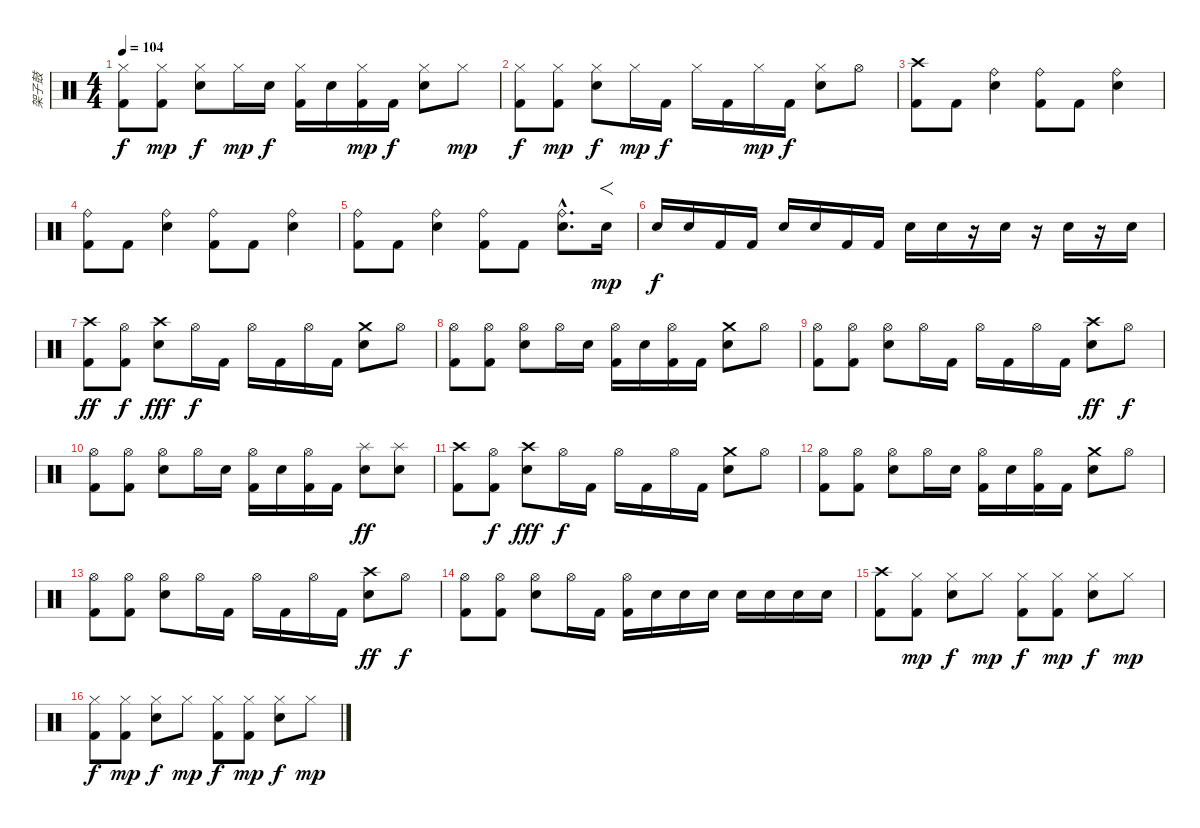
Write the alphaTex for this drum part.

\track ("架子鼓" "架子鼓") {instrument percussion}
\staff {score}
\articulation defaults
\ts (4 4)
\tempo 104
\clef neutral
\ks c
("Hi-Hat (closed)" "Kick (hit) 2").8{dy f} ("Hi-Hat (closed)" "Kick (hit) 2").8{dy mp} ("Hi-Hat (closed)" "Electric Snare (hit)").8{dy f} "Hi-Hat (closed)".16{dy mp} "Electric Snare (hit)".16{dy f} ("Hi-Hat (closed)" "Kick (hit) 2").16 "Electric Snare (hit)".16 ("Hi-Hat (closed)" "Kick (hit) 2").16{dy mp} "Kick (hit) 2".16{dy f} ("Hi-Hat (closed)" "Electric Snare (hit)").8 "Hi-Hat (closed)".8{dy mp} |
("Hi-Hat (closed)" "Kick (hit) 2").8{dy f} ("Hi-Hat (closed)" "Kick (hit) 2").8{dy mp} ("Hi-Hat (closed)" "Electric Snare (hit)").8{dy f} "Hi-Hat (closed)".16{dy mp} "Kick (hit) 2".16{dy f} "Hi-Hat (closed)".16 "Kick (hit) 2".16 "Hi-Hat (closed)".16{dy mp} "Kick (hit) 2".16{dy f} ("Hi-Hat (closed)" "Electric Snare (hit)").8 "Hi-Hat (open)".8 |
("Crash high (hit)" "Kick (hit) 2").8 "Kick (hit) 2".8 ("Ride (bell)" "Electric Snare (hit)").4 ("Ride (bell)" "Kick (hit) 2").8 "Kick (hit) 2".8 ("Ride (bell)" "Electric Snare (hit)").4 |
("Ride (bell)" "Kick (hit) 2").8 "Kick (hit) 2".8 ("Ride (bell)" "Electric Snare (hit)").4 ("Ride (bell)" "Kick (hit) 2").8 "Kick (hit) 2".8 ("Ride (bell)" "Electric Snare (hit)").4 |
("Ride (bell)" "Kick (hit) 2").8 "Kick (hit) 2".8 ("Ride (bell)" "Electric Snare (hit)").4 ("Ride (bell)" "Kick (hit) 2").8 "Kick (hit) 2".8 ("Ride (bell)"{hac} "Electric Snare (hit)"{hac}).8{d} "Electric Snare (hit)"{tr (40 32)}.16{f dy mp} |
"Electric Snare (hit)".16{dy f} "Electric Snare (hit)".16 "Kick (hit) 2".16 "Kick (hit) 2".16 "Electric Snare (hit)".16 "Electric Snare (hit)".16 "Kick (hit) 2".16 "Kick (hit) 2".16 "Electric Snare (hit)".16 "Electric Snare (hit)".16 r.16 "Electric Snare (hit)".16 r.16 "Electric Snare (hit)".16 r.16 "Electric Snare (hit)".16 |
("Crash high (hit)" "Kick (hit) 2").8{dy ff} ("Hi-Hat (open)" "Kick (hit) 2").8{dy f} ("Crash high (hit)" "Electric Snare (hit)").8{dy fff} "Hi-Hat (open)".16{dy f} "Kick (hit) 2".16 "Hi-Hat (open)".16 "Kick (hit) 2".16 "Hi-Hat (open)".16 "Kick (hit) 2".16 ("Crash medium (hit)" "Electric Snare (hit)").8 "Hi-Hat (open)".8 |
("Hi-Hat (open)" "Kick (hit) 2").8 ("Hi-Hat (open)" "Kick (hit) 2").8 ("Hi-Hat (open)" "Electric Snare (hit)").8 "Hi-Hat (open)".16 "Electric Snare (hit)".16 ("Hi-Hat (open)" "Kick (hit) 2").16 "Electric Snare (hit)".16 ("Hi-Hat (open)" "Kick (hit) 2").16 "Kick (hit) 2".16 ("Crash medium (hit)" "Electric Snare (hit)").8 "Hi-Hat (open)".8 |
("Hi-Hat (open)" "Kick (hit) 2").8 ("Hi-Hat (open)" "Kick (hit) 2").8 ("Hi-Hat (open)" "Electric Snare (hit)").8 "Hi-Hat (open)".16 "Kick (hit) 2".16 "Hi-Hat (open)".16 "Kick (hit) 2".16 "Hi-Hat (open)".16 "Kick (hit) 2".16 ("Crash high (hit)" "Electric Snare (hit)").8{dy ff} "Hi-Hat (open)".8{dy f} |
("Hi-Hat (open)" "Kick (hit) 2").8 ("Hi-Hat (open)" "Kick (hit) 2").8 ("Hi-Hat (open)" "Electric Snare (hit)").8 "Hi-Hat (open)".16 "Electric Snare (hit)".16 ("Hi-Hat (open)" "Kick (hit) 2").16 "Electric Snare (hit)".16 ("Hi-Hat (open)" "Kick (hit) 2").16 "Kick (hit) 2".16 ("Splash (hit)" "Electric Snare (hit)").8{dy ff} ("Splash (hit)" "Electric Snare (hit)").8 |
("Crash high (hit)" "Kick (hit) 2").8 ("Hi-Hat (open)" "Kick (hit) 2").8{dy f} ("Crash high (hit)" "Electric Snare (hit)").8{dy fff} "Hi-Hat (open)".16{dy f} "Kick (hit) 2".16 "Hi-Hat (open)".16 "Kick (hit) 2".16 "Hi-Hat (open)".16 "Kick (hit) 2".16 ("Crash medium (hit)" "Electric Snare (hit)").8 "Hi-Hat (open)".8 |
("Hi-Hat (open)" "Kick (hit) 2").8 ("Hi-Hat (open)" "Kick (hit) 2").8 ("Hi-Hat (open)" "Electric Snare (hit)").8 "Hi-Hat (open)".16 "Electric Snare (hit)".16 ("Hi-Hat (open)" "Kick (hit) 2").16 "Electric Snare (hit)".16 ("Hi-Hat (open)" "Kick (hit) 2").16 "Kick (hit) 2".16 ("Crash medium (hit)" "Electric Snare (hit)").8 "Hi-Hat (open)".8 |
("Hi-Hat (open)" "Kick (hit) 2").8 ("Hi-Hat (open)" "Kick (hit) 2").8 ("Hi-Hat (open)" "Electric Snare (hit)").8 "Hi-Hat (open)".16 "Kick (hit) 2".16 "Hi-Hat (open)".16 "Kick (hit) 2".16 "Hi-Hat (open)".16 "Kick (hit) 2".16 ("Crash high (hit)" "Electric Snare (hit)").8{dy ff} "Hi-Hat (open)".8{dy f} |
("Hi-Hat (open)" "Kick (hit) 2").8 ("Hi-Hat (open)" "Kick (hit) 2").8 ("Hi-Hat (open)" "Electric Snare (hit)").8 "Hi-Hat (open)".16 "Kick (hit) 2".16 ("Hi-Hat (open)" "Kick (hit) 2").16 "Electric Snare (hit)".16 "Electric Snare (hit)".16 "Electric Snare (hit)".16 "Electric Snare (hit)".16 "Electric Snare (hit)".16 "Electric Snare (hit)".16 "Electric Snare (hit)".16 |
("Crash high (hit)" "Kick (hit) 2").8 ("Hi-Hat (closed)" "Kick (hit) 2").8{dy mp} ("Hi-Hat (closed)" "Electric Snare (hit)").8{dy f} "Hi-Hat (closed)".8{dy mp} ("Hi-Hat (closed)" "Kick (hit) 2").8{dy f} ("Hi-Hat (closed)" "Kick (hit) 2").8{dy mp} ("Hi-Hat (closed)" "Electric Snare (hit)").8{dy f} "Hi-Hat (closed)".8{dy mp} |
("Hi-Hat (closed)" "Kick (hit) 2").8{dy f} ("Hi-Hat (closed)" "Kick (hit) 2").8{dy mp} ("Hi-Hat (closed)" "Electric Snare (hit)").8{dy f} "Hi-Hat (closed)".8{dy mp} ("Hi-Hat (closed)" "Kick (hit) 2").8{dy f} ("Hi-Hat (closed)" "Kick (hit) 2").8{dy mp} ("Hi-Hat (closed)" "Electric Snare (hit)").8{dy f} "Hi-Hat (closed)".8{dy mp}
